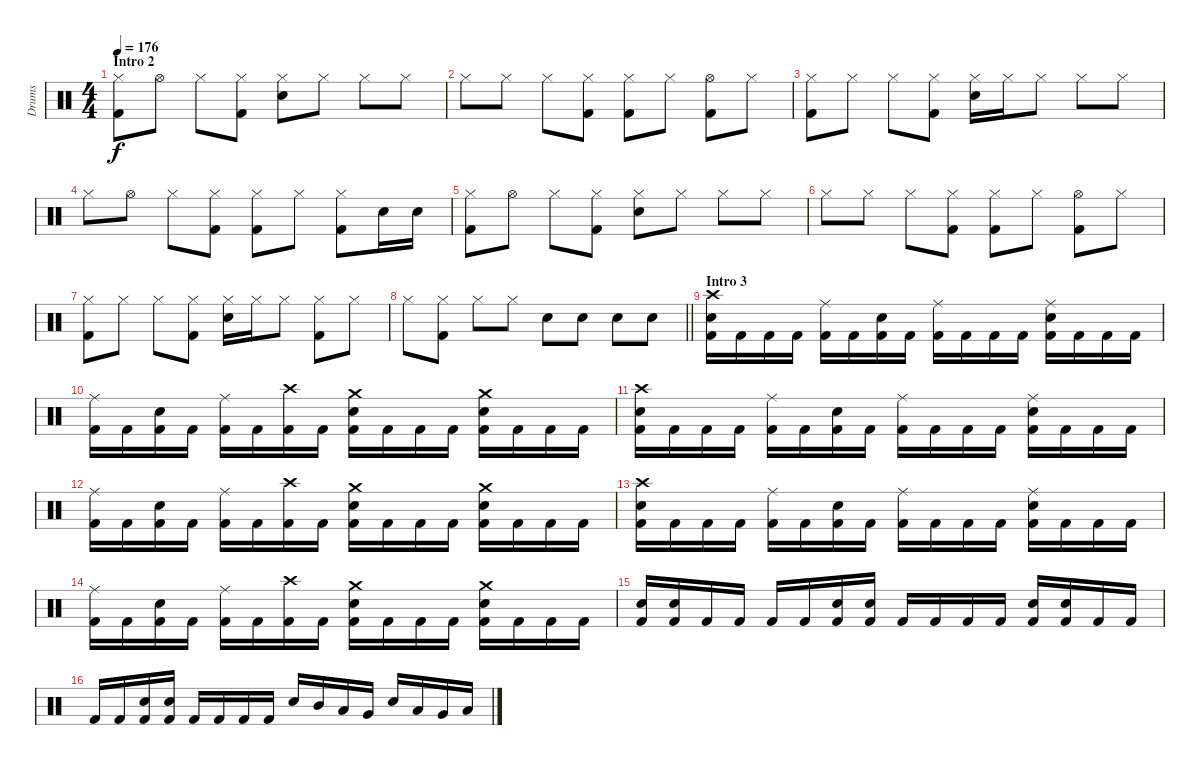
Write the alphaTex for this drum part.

\track ("Drums" "Drums") {instrument percussion}
\staff {score}
\articulation defaults
\ts (4 4)
\section ("" "Intro 2")
\tempo 176
\clef neutral
\ks c
("Hi-Hat (closed)" "Kick (hit) 2").8{dy f} "Hi-Hat (open)".8 "Hi-Hat (closed)".8 ("Hi-Hat (closed)" "Kick (hit) 2").8 ("Hi-Hat (closed)" "Snare (hit) 2").8 "Hi-Hat (closed)".8 "Hi-Hat (closed)".8 "Hi-Hat (closed)".8 |
"Hi-Hat (closed)".8 "Hi-Hat (closed)".8 "Hi-Hat (closed)".8 ("Hi-Hat (closed)" "Kick (hit) 2").8 ("Hi-Hat (closed)" "Kick (hit) 2").8 "Hi-Hat (closed)".8 ("Hi-Hat (open)" "Kick (hit) 2").8 "Hi-Hat (closed)".8 |
("Hi-Hat (closed)" "Kick (hit) 2").8 "Hi-Hat (closed)".8 "Hi-Hat (closed)".8 ("Hi-Hat (closed)" "Kick (hit) 2").8 ("Hi-Hat (closed)" "Snare (hit) 2").16 "Hi-Hat (closed)".16 "Hi-Hat (closed)".8 "Hi-Hat (closed)".8 "Hi-Hat (closed)".8 |
"Hi-Hat (closed)".8 "Hi-Hat (open)".8 "Hi-Hat (closed)".8 ("Hi-Hat (closed)" "Kick (hit) 2").8 ("Hi-Hat (closed)" "Kick (hit) 2").8 "Hi-Hat (closed)".8 ("Hi-Hat (closed)" "Kick (hit) 2").8 "Snare (hit) 2".16 "Snare (hit) 2".16 |
("Hi-Hat (closed)" "Kick (hit) 2").8 "Hi-Hat (open)".8 "Hi-Hat (closed)".8 ("Hi-Hat (closed)" "Kick (hit) 2").8 ("Hi-Hat (closed)" "Snare (hit) 2").8 "Hi-Hat (closed)".8 "Hi-Hat (closed)".8 "Hi-Hat (closed)".8 |
"Hi-Hat (closed)".8 "Hi-Hat (closed)".8 "Hi-Hat (closed)".8 ("Hi-Hat (closed)" "Kick (hit) 2").8 ("Hi-Hat (closed)" "Kick (hit) 2").8 "Hi-Hat (closed)".8 ("Hi-Hat (open)" "Kick (hit) 2").8 "Hi-Hat (closed)".8 |
("Hi-Hat (closed)" "Kick (hit) 2").8 "Hi-Hat (closed)".8 "Hi-Hat (closed)".8 ("Hi-Hat (closed)" "Kick (hit) 2").8 ("Hi-Hat (closed)" "Snare (hit) 2").16 "Hi-Hat (closed)".16 "Hi-Hat (closed)".8 ("Hi-Hat (closed)" "Kick (hit) 2").8 "Hi-Hat (closed)".8 |
\barLineRight lightlight "Hi-Hat (closed)".8
("Hi-Hat (closed)" "Kick (hit) 2").8 "Hi-Hat (closed)".8 "Hi-Hat (closed)".8 "Snare (hit) 2".8 "Snare (hit) 2".8 "Snare (hit) 2".8 "Snare (hit) 2".8 |
\section ("" "Intro 3")
("Crash high (hit)" "Snare (hit) 2" "Kick (hit) 2").16 "Kick (hit) 2".16 "Kick (hit) 2".16 "Kick (hit) 2".16 ("Ride (middle)" "Kick (hit) 2").16 "Kick (hit) 2".16 ("Snare (hit) 2" "Kick (hit) 2").16 "Kick (hit) 2".16 ("Ride (middle)" "Kick (hit) 2").16 "Kick (hit) 2".16 "Kick (hit) 2".16 "Kick (hit) 2".16 ("Ride (middle)" "Snare (hit) 2" "Kick (hit) 2").16 "Kick (hit) 2".16 "Kick (hit) 2".16 "Kick (hit) 2".16 |
("Ride (middle)" "Kick (hit) 2").16 "Kick (hit) 2".16 ("Snare (hit) 2" "Kick (hit) 2").16 "Kick (hit) 2".16 ("Ride (middle)" "Kick (hit) 2").16 "Kick (hit) 2".16 ("Crash high (hit)" "Kick (hit) 2").16 "Kick (hit) 2".16 ("Crash medium (hit)" "Snare (hit) 2" "Kick (hit) 2").16 "Kick (hit) 2".16 "Kick (hit) 2".16 "Kick (hit) 2".16 ("Crash medium (hit)" "Snare (hit) 2" "Kick (hit) 2").16 "Kick (hit) 2".16 "Kick (hit) 2".16 "Kick (hit) 2".16 |
("Crash high (hit)" "Snare (hit) 2" "Kick (hit) 2").16 "Kick (hit) 2".16 "Kick (hit) 2".16 "Kick (hit) 2".16 ("Ride (middle)" "Kick (hit) 2").16 "Kick (hit) 2".16 ("Snare (hit) 2" "Kick (hit) 2").16 "Kick (hit) 2".16 ("Ride (middle)" "Kick (hit) 2").16 "Kick (hit) 2".16 "Kick (hit) 2".16 "Kick (hit) 2".16 ("Ride (middle)" "Snare (hit) 2" "Kick (hit) 2").16 "Kick (hit) 2".16 "Kick (hit) 2".16 "Kick (hit) 2".16 |
("Ride (middle)" "Kick (hit) 2").16 "Kick (hit) 2".16 ("Snare (hit) 2" "Kick (hit) 2").16 "Kick (hit) 2".16 ("Ride (middle)" "Kick (hit) 2").16 "Kick (hit) 2".16 ("Crash high (hit)" "Kick (hit) 2").16 "Kick (hit) 2".16 ("Crash medium (hit)" "Snare (hit) 2" "Kick (hit) 2").16 "Kick (hit) 2".16 "Kick (hit) 2".16 "Kick (hit) 2".16 ("Crash medium (hit)" "Snare (hit) 2" "Kick (hit) 2").16 "Kick (hit) 2".16 "Kick (hit) 2".16 "Kick (hit) 2".16 |
("Crash high (hit)" "Snare (hit) 2" "Kick (hit) 2").16 "Kick (hit) 2".16 "Kick (hit) 2".16 "Kick (hit) 2".16 ("Ride (middle)" "Kick (hit) 2").16 "Kick (hit) 2".16 ("Snare (hit) 2" "Kick (hit) 2").16 "Kick (hit) 2".16 ("Ride (middle)" "Kick (hit) 2").16 "Kick (hit) 2".16 "Kick (hit) 2".16 "Kick (hit) 2".16 ("Ride (middle)" "Snare (hit) 2" "Kick (hit) 2").16 "Kick (hit) 2".16 "Kick (hit) 2".16 "Kick (hit) 2".16 |
("Ride (middle)" "Kick (hit) 2").16 "Kick (hit) 2".16 ("Snare (hit) 2" "Kick (hit) 2").16 "Kick (hit) 2".16 ("Ride (middle)" "Kick (hit) 2").16 "Kick (hit) 2".16 ("Crash high (hit)" "Kick (hit) 2").16 "Kick (hit) 2".16 ("Crash medium (hit)" "Snare (hit) 2" "Kick (hit) 2").16 "Kick (hit) 2".16 "Kick (hit) 2".16 "Kick (hit) 2".16 ("Crash medium (hit)" "Snare (hit) 2" "Kick (hit) 2").16 "Kick (hit) 2".16 "Kick (hit) 2".16 "Kick (hit) 2".16 |
("Snare (hit) 2" "Kick (hit) 2").16 ("Snare (hit) 2" "Kick (hit) 2").16 "Kick (hit) 2".16 "Kick (hit) 2".16 "Kick (hit) 2".16 "Kick (hit) 2".16 ("Snare (hit) 2" "Kick (hit) 2").16 ("Snare (hit) 2" "Kick (hit) 2").16 "Kick (hit) 2".16 "Kick (hit) 2".16 "Kick (hit) 2".16 "Kick (hit) 2".16 ("Snare (hit) 2" "Kick (hit) 2").16 ("Snare (hit) 2" "Kick (hit) 2").16 "Kick (hit) 2".16 "Kick (hit) 2".16 |
"Kick (hit) 2".16 "Kick (hit) 2".16 ("Snare (hit) 2" "Kick (hit) 2").16 ("Snare (hit) 2" "Kick (hit) 2").16 "Kick (hit) 2".16 "Kick (hit) 2".16 "Kick (hit) 2".16 "Kick (hit) 2".16 "Snare (hit) 2".16 "Mid Tom (hit)".16 "Low Tom (hit)".16 "Very Low Tom (hit)".16 "Snare (hit) 2".16 "Low Tom (hit)".16 "Very Low Tom (hit)".16 "Low Floor Tom (hit)".16
